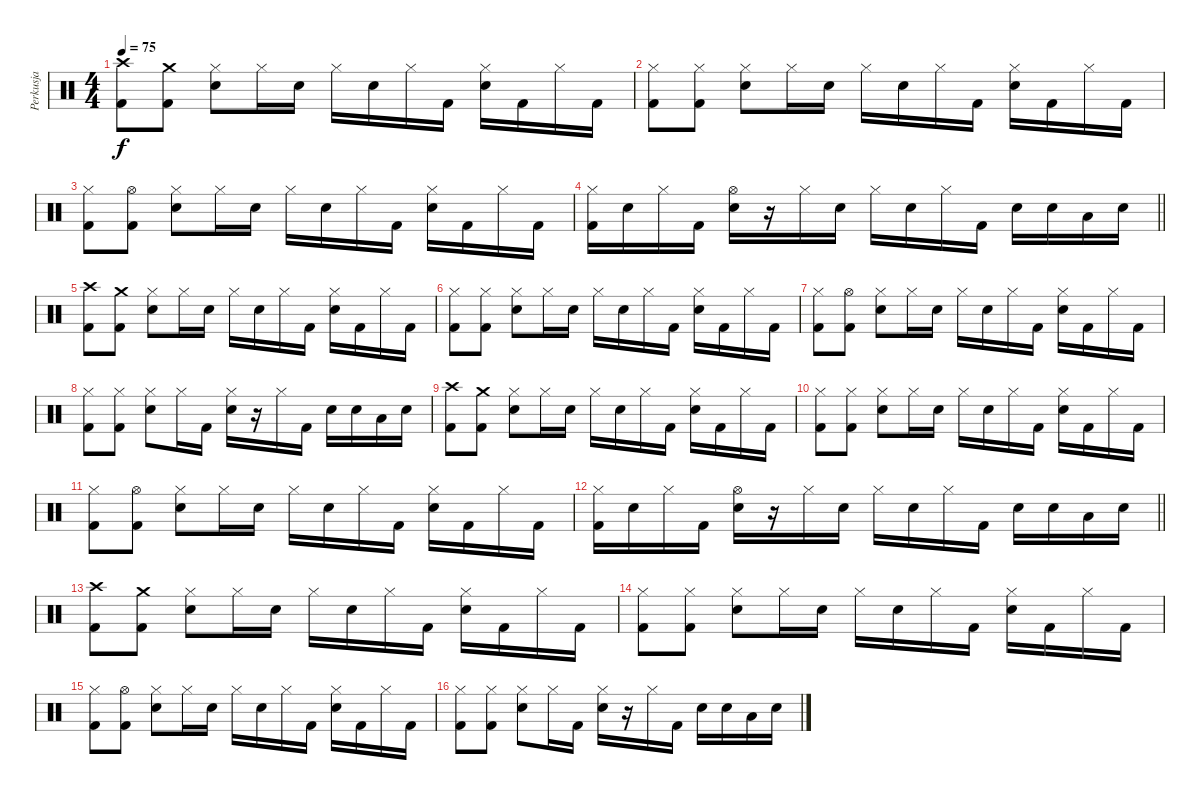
\track ("Perkusja" "Perkusja") {instrument percussion}
\staff {score}
\articulation defaults
\ts (4 4)
\tempo 75
\clef neutral
\ks c
("Crash high (hit)" "Kick (hit) 2").8{dy f} ("Crash medium (hit)" "Kick (hit) 2").8 ("Hi-Hat (closed)" "Snare (hit) 2").8 "Hi-Hat (closed)".16 "Snare (hit) 2".16 "Hi-Hat (closed)".16 "Snare (hit) 2".16 "Hi-Hat (closed)".16 "Kick (hit) 2".16 ("Hi-Hat (closed)" "Snare (hit) 2").16 "Kick (hit) 2".16 "Hi-Hat (closed)".16 "Kick (hit) 2".16 |
("Hi-Hat (closed)" "Kick (hit) 2").8 ("Hi-Hat (closed)" "Kick (hit) 2").8 ("Hi-Hat (closed)" "Snare (hit) 2").8 "Hi-Hat (closed)".16 "Snare (hit) 2".16 "Hi-Hat (closed)".16 "Snare (hit) 2".16 "Hi-Hat (closed)".16 "Kick (hit) 2".16 ("Hi-Hat (closed)" "Snare (hit) 2").16 "Kick (hit) 2".16 "Hi-Hat (closed)".16 "Kick (hit) 2".16 |
("Hi-Hat (closed)" "Kick (hit) 2").8 ("Hi-Hat (open)" "Kick (hit) 2").8 ("Hi-Hat (closed)" "Snare (hit) 2").8 "Hi-Hat (closed)".16 "Snare (hit) 2".16 "Hi-Hat (closed)".16 "Snare (hit) 2".16 "Hi-Hat (closed)".16 "Kick (hit) 2".16 ("Hi-Hat (closed)" "Snare (hit) 2").16 "Kick (hit) 2".16 "Hi-Hat (closed)".16 "Kick (hit) 2".16 |
\barLineRight lightlight
("Hi-Hat (closed)" "Kick (hit) 2").16 "Snare (hit) 2".16 "Hi-Hat (closed)".16 "Kick (hit) 2".16 ("Hi-Hat (open)" "Snare (hit) 2").16 r.16 "Hi-Hat (closed)".16 "Snare (hit) 2".16 "Hi-Hat (closed)".16 "Snare (hit) 2".16 "Hi-Hat (closed)".16 "Kick (hit) 2".16 "Snare (hit) 2".16 "Snare (hit) 2".16 "Low Tom (hit)".16 "Snare (hit) 2".16 |
\section ("" "")
("Crash high (hit)" "Kick (hit) 2").8 ("Crash medium (hit)" "Kick (hit) 2").8 ("Hi-Hat (closed)" "Snare (hit) 2").8 "Hi-Hat (closed)".16 "Snare (hit) 2".16 "Hi-Hat (closed)".16 "Snare (hit) 2".16 "Hi-Hat (closed)".16 "Kick (hit) 2".16 ("Hi-Hat (closed)" "Snare (hit) 2").16 "Kick (hit) 2".16 "Hi-Hat (closed)".16 "Kick (hit) 2".16 |
("Hi-Hat (closed)" "Kick (hit) 2").8 ("Hi-Hat (closed)" "Kick (hit) 2").8 ("Hi-Hat (closed)" "Snare (hit) 2").8 "Hi-Hat (closed)".16 "Snare (hit) 2".16 "Hi-Hat (closed)".16 "Snare (hit) 2".16 "Hi-Hat (closed)".16 "Kick (hit) 2".16 ("Hi-Hat (closed)" "Snare (hit) 2").16 "Kick (hit) 2".16 "Hi-Hat (closed)".16 "Kick (hit) 2".16 |
("Hi-Hat (closed)" "Kick (hit) 2").8 ("Hi-Hat (open)" "Kick (hit) 2").8 ("Hi-Hat (closed)" "Snare (hit) 2").8 "Hi-Hat (closed)".16 "Snare (hit) 2".16 "Hi-Hat (closed)".16 "Snare (hit) 2".16 "Hi-Hat (closed)".16 "Kick (hit) 2".16 ("Hi-Hat (closed)" "Snare (hit) 2").16 "Kick (hit) 2".16 "Hi-Hat (closed)".16 "Kick (hit) 2".16 |
("Hi-Hat (closed)" "Kick (hit) 2").8 ("Hi-Hat (closed)" "Kick (hit) 2").8 ("Hi-Hat (closed)" "Snare (hit) 2").8 "Hi-Hat (closed)".16 "Kick (hit) 2".16 ("Hi-Hat (closed)" "Snare (hit) 2").16 r.16 "Hi-Hat (closed)".16 "Kick (hit) 2".16 "Snare (hit) 2".16 "Snare (hit) 2".16 "Low Tom (hit)".16 "Snare (hit) 2".16 |
("Crash high (hit)" "Kick (hit) 2").8 ("Crash medium (hit)" "Kick (hit) 2").8 ("Hi-Hat (closed)" "Snare (hit) 2").8 "Hi-Hat (closed)".16 "Snare (hit) 2".16 "Hi-Hat (closed)".16 "Snare (hit) 2".16 "Hi-Hat (closed)".16 "Kick (hit) 2".16 ("Hi-Hat (closed)" "Snare (hit) 2").16 "Kick (hit) 2".16 "Hi-Hat (closed)".16 "Kick (hit) 2".16 |
("Hi-Hat (closed)" "Kick (hit) 2").8 ("Hi-Hat (closed)" "Kick (hit) 2").8 ("Hi-Hat (closed)" "Snare (hit) 2").8 "Hi-Hat (closed)".16 "Snare (hit) 2".16 "Hi-Hat (closed)".16 "Snare (hit) 2".16 "Hi-Hat (closed)".16 "Kick (hit) 2".16 ("Hi-Hat (closed)" "Snare (hit) 2").16 "Kick (hit) 2".16 "Hi-Hat (closed)".16 "Kick (hit) 2".16 |
("Hi-Hat (closed)" "Kick (hit) 2").8 ("Hi-Hat (open)" "Kick (hit) 2").8 ("Hi-Hat (closed)" "Snare (hit) 2").8 "Hi-Hat (closed)".16 "Snare (hit) 2".16 "Hi-Hat (closed)".16 "Snare (hit) 2".16 "Hi-Hat (closed)".16 "Kick (hit) 2".16 ("Hi-Hat (closed)" "Snare (hit) 2").16 "Kick (hit) 2".16 "Hi-Hat (closed)".16 "Kick (hit) 2".16 |
\barLineRight lightlight
("Hi-Hat (closed)" "Kick (hit) 2").16 "Snare (hit) 2".16 "Hi-Hat (closed)".16 "Kick (hit) 2".16 ("Hi-Hat (open)" "Snare (hit) 2").16 r.16 "Hi-Hat (closed)".16 "Snare (hit) 2".16 "Hi-Hat (closed)".16 "Snare (hit) 2".16 "Hi-Hat (closed)".16 "Kick (hit) 2".16 "Snare (hit) 2".16 "Snare (hit) 2".16 "Low Tom (hit)".16 "Snare (hit) 2".16 |
\section ("" "")
("Crash high (hit)" "Kick (hit) 2").8 ("Crash medium (hit)" "Kick (hit) 2").8 ("Hi-Hat (closed)" "Snare (hit) 2").8 "Hi-Hat (closed)".16 "Snare (hit) 2".16 "Hi-Hat (closed)".16 "Snare (hit) 2".16 "Hi-Hat (closed)".16 "Kick (hit) 2".16 ("Hi-Hat (closed)" "Snare (hit) 2").16 "Kick (hit) 2".16 "Hi-Hat (closed)".16 "Kick (hit) 2".16 |
("Hi-Hat (closed)" "Kick (hit) 2").8 ("Hi-Hat (closed)" "Kick (hit) 2").8 ("Hi-Hat (closed)" "Snare (hit) 2").8 "Hi-Hat (closed)".16 "Snare (hit) 2".16 "Hi-Hat (closed)".16 "Snare (hit) 2".16 "Hi-Hat (closed)".16 "Kick (hit) 2".16 ("Hi-Hat (closed)" "Snare (hit) 2").16 "Kick (hit) 2".16 "Hi-Hat (closed)".16 "Kick (hit) 2".16 |
("Hi-Hat (closed)" "Kick (hit) 2").8 ("Hi-Hat (open)" "Kick (hit) 2").8 ("Hi-Hat (closed)" "Snare (hit) 2").8 "Hi-Hat (closed)".16 "Snare (hit) 2".16 "Hi-Hat (closed)".16 "Snare (hit) 2".16 "Hi-Hat (closed)".16 "Kick (hit) 2".16 ("Hi-Hat (closed)" "Snare (hit) 2").16 "Kick (hit) 2".16 "Hi-Hat (closed)".16 "Kick (hit) 2".16 |
("Hi-Hat (closed)" "Kick (hit) 2").8 ("Hi-Hat (closed)" "Kick (hit) 2").8 ("Hi-Hat (closed)" "Snare (hit) 2").8 "Hi-Hat (closed)".16 "Kick (hit) 2".16 ("Hi-Hat (closed)" "Snare (hit) 2").16 r.16 "Hi-Hat (closed)".16 "Kick (hit) 2".16 "Snare (hit) 2".16 "Snare (hit) 2".16 "Low Tom (hit)".16 "Snare (hit) 2".16
